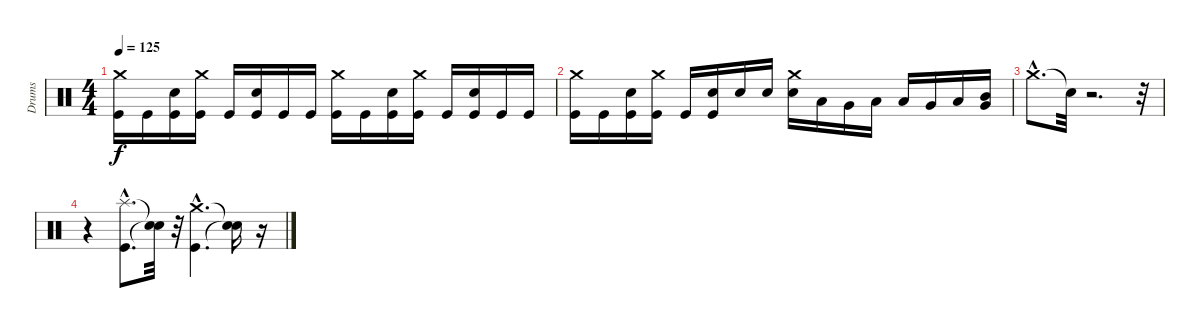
\track ("Drums" "Drums") {instrument percussion}
\staff {score}
\articulation defaults
\ts (4 4)
\tempo 125
\clef neutral
\ks c
("Kick (hit)" "Crash medium (hit)").16{dy f} "Kick (hit)".16 ("Kick (hit)" "Electric Snare (hit)").16 ("Kick (hit)" "Crash medium (hit)").16 "Kick (hit)".16 ("Kick (hit)" "Electric Snare (hit)").16 "Kick (hit)".16 "Kick (hit)".16 ("Kick (hit)" "Crash medium (hit)").16 "Kick (hit)".16 ("Kick (hit)" "Electric Snare (hit)").16 ("Kick (hit)" "Crash medium (hit)").16 "Kick (hit)".16 ("Kick (hit)" "Electric Snare (hit)").16 "Kick (hit)".16 "Kick (hit)".16 |
("Kick (hit)" "Crash medium (hit)").16 "Kick (hit)".16 ("Kick (hit)" "Electric Snare (hit)").16 ("Kick (hit)" "Crash medium (hit)").16 "Kick (hit)".16 ("Kick (hit)" "Electric Snare (hit)").16 "Electric Snare (hit)".16 "Electric Snare (hit)".16 ("Electric Snare (hit)" "Crash medium (hit)").16 "Low Tom (hit)".16 "Very Low Tom (hit)".16 "Low Floor Tom (hit)".16 "Low Tom (hit)".16 "Very Low Tom (hit)".16 "Low Floor Tom (hit)".16 ("Very Low Tom (hit)" "Mid Tom (hit)").16 |
"Crash medium (hit)"{hac}.8{d} "Snare (hit)"{t}.32 r.2{d} r.32 |
r.4 ("Kick (hit)"{hac} "Splash (hit)"{hac}).8{d} ("Snare (hit)"{t} "Snare (hit)"{t}).32 r.32 ("Kick (hit)"{hac} "Crash medium (hit)"{hac}).4{d} ("Snare (hit)"{t} "Snare (hit)"{t}).16 r.16
